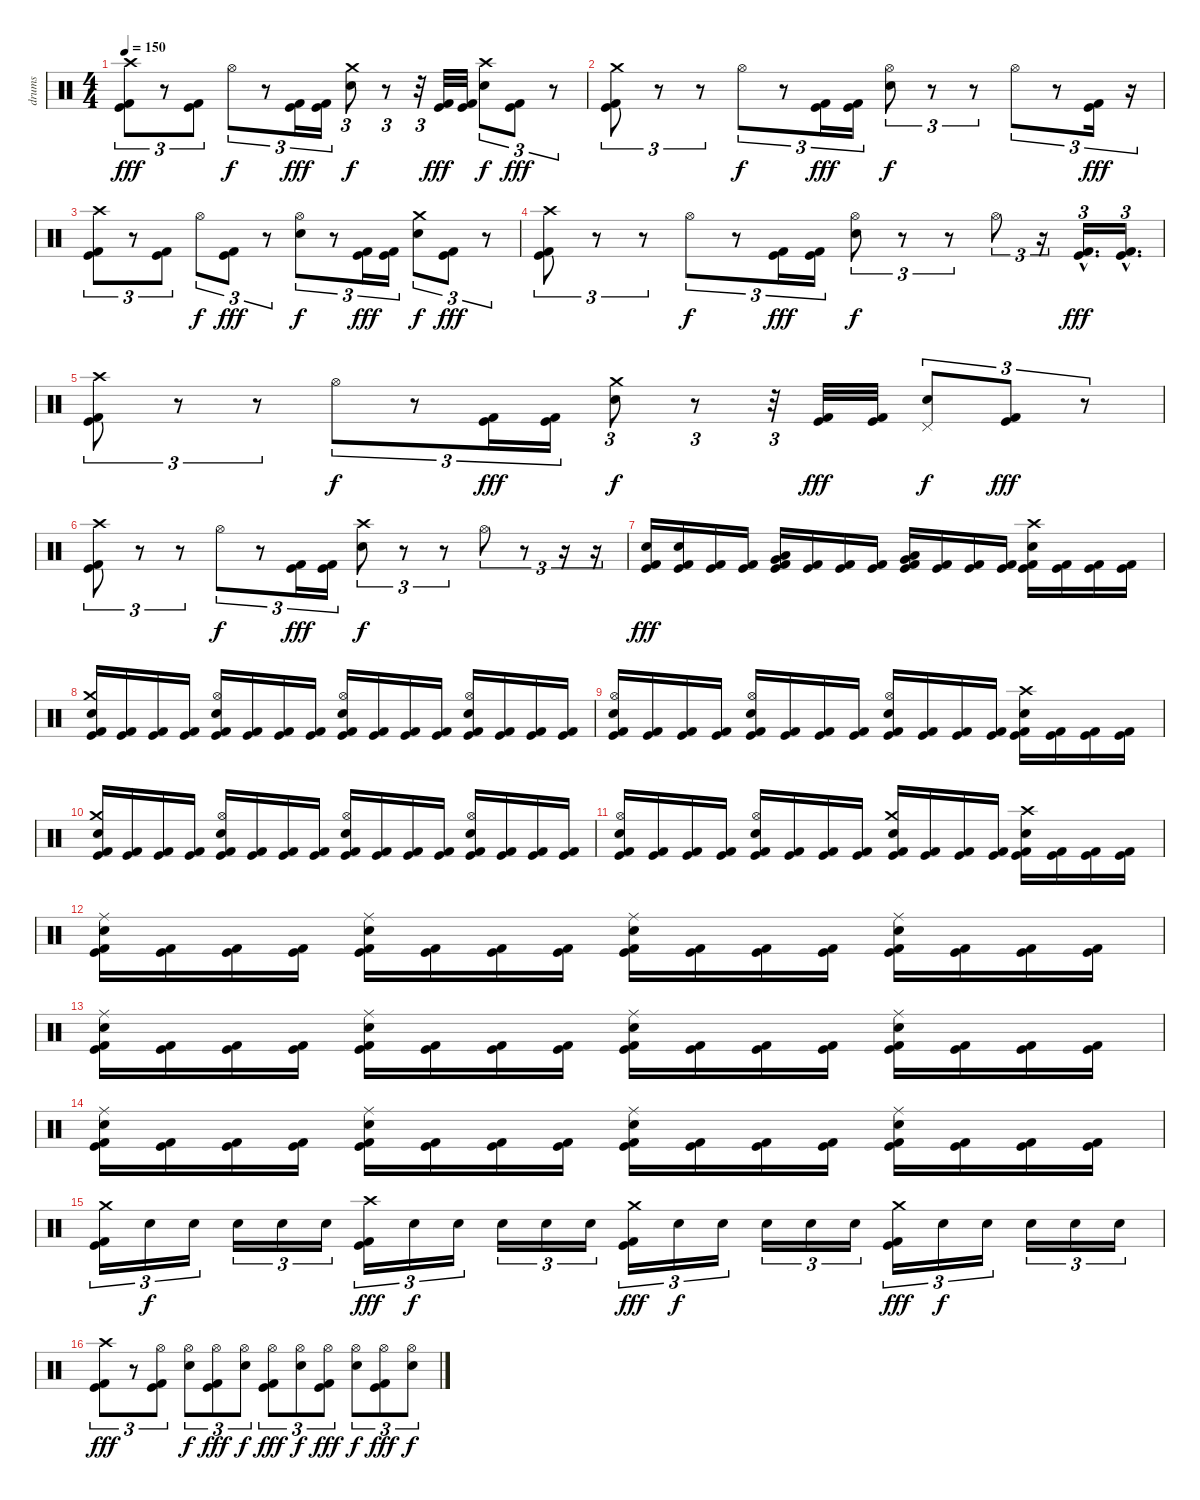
\track ("drums" "drums") {instrument percussion}
\staff {score}
\articulation defaults
\ts (4 4)
\tempo 150
\clef neutral
\ks c
("Crash high (hit)" "Kick (hit)" "Kick (hit) 2").8{tu (3 2) dy fff} r.8{tu (3 2)} ("Kick (hit)" "Kick (hit) 2").8{tu (3 2)} "Hi-Hat (open)".8{tu (3 2) dy f} r.8{tu (3 2)} ("Kick (hit)" "Kick (hit) 2").16{tu (3 2) dy fff} ("Kick (hit)" "Kick (hit) 2").16{tu (3 2)} ("Crash medium (hit)" "Electric Snare (hit)").8{tu (3 2) dy f} r.8{tu (3 2)} r.32{tu (3 2)} ("Kick (hit)" "Kick (hit) 2").32{dy fff} ("Kick (hit)" "Kick (hit) 2").32 ("Crash high (hit)" "Electric Snare (hit)").8{tu (3 2) dy f} ("Kick (hit)" "Kick (hit) 2").8{tu (3 2) dy fff} r.8{tu (3 2)} |
("Crash medium (hit)" "Kick (hit)" "Kick (hit) 2").8{tu (3 2)} r.8{tu (3 2)} r.8{tu (3 2)} "Hi-Hat (open)".8{tu (3 2) dy f} r.8{tu (3 2)} ("Kick (hit)" "Kick (hit) 2").16{tu (3 2) dy fff} ("Kick (hit)" "Kick (hit) 2").16{tu (3 2)} ("Hi-Hat (open)" "Electric Snare (hit)").8{tu (3 2) dy f} r.8{tu (3 2)} r.8{tu (3 2)} "Hi-Hat (open)".8{tu (3 2)} r.8{tu (3 2)} ("Kick (hit)" "Kick (hit) 2").16{tu (3 2) dy fff} r.16{tu (3 2)} |
("Crash high (hit)" "Kick (hit)" "Kick (hit) 2").8{tu (3 2)} r.8{tu (3 2)} ("Kick (hit)" "Kick (hit) 2").8{tu (3 2)} "Hi-Hat (open)".8{tu (3 2) dy f} ("Kick (hit)" "Kick (hit) 2").8{tu (3 2) dy fff} r.8{tu (3 2)} ("Hi-Hat (open)" "Electric Snare (hit)").8{tu (3 2) dy f} r.8{tu (3 2)} ("Kick (hit)" "Kick (hit) 2").16{tu (3 2) dy fff} ("Kick (hit)" "Kick (hit) 2").16{tu (3 2)} ("Crash medium (hit)" "Electric Snare (hit)").8{tu (3 2) dy f} ("Kick (hit)" "Kick (hit) 2").8{tu (3 2) dy fff} r.8{tu (3 2)} |
("Crash high (hit)" "Kick (hit)" "Kick (hit) 2").8{tu (3 2)} r.8{tu (3 2)} r.8{tu (3 2)} "Hi-Hat (open)".8{tu (3 2) dy f} r.8{tu (3 2)} ("Kick (hit)" "Kick (hit) 2").16{tu (3 2) dy fff} ("Kick (hit)" "Kick (hit) 2").16{tu (3 2)} ("Hi-Hat (open)" "Electric Snare (hit)").8{tu (3 2) dy f} r.8{tu (3 2)} r.8{tu (3 2)} "Hi-Hat (open)".8{tu (3 2)} r.16{tu (3 2)} ("Kick (hit)"{hac} "Kick (hit) 2"{hac}).16{d tu (3 2) dy fff} ("Kick (hit)"{hac} "Kick (hit) 2"{hac}).16{d tu (3 2)} |
("Crash high (hit)" "Kick (hit)" "Kick (hit) 2").8{tu (3 2)} r.8{tu (3 2)} r.8{tu (3 2)} "Hi-Hat (open)".8{tu (3 2) dy f} r.8{tu (3 2)} ("Kick (hit)" "Kick (hit) 2").16{tu (3 2) dy fff} ("Kick (hit)" "Kick (hit) 2").16{tu (3 2)} ("Crash medium (hit)" "Electric Snare (hit)").8{tu (3 2) dy f} r.8{tu (3 2)} r.32{tu (3 2)} ("Kick (hit)" "Kick (hit) 2").32{dy fff} ("Kick (hit)" "Kick (hit) 2").32 ("Pedal Hi-Hat (hit)" "Electric Snare (hit)").8{tu (3 2) dy f} ("Kick (hit)" "Kick (hit) 2").8{tu (3 2) dy fff} r.8{tu (3 2)} |
("Crash high (hit)" "Kick (hit)" "Kick (hit) 2").8{tu (3 2)} r.8{tu (3 2)} r.8{tu (3 2)} "Hi-Hat (open)".8{tu (3 2) dy f} r.8{tu (3 2)} ("Kick (hit)" "Kick (hit) 2").16{tu (3 2) dy fff} ("Kick (hit)" "Kick (hit) 2").16{tu (3 2)} ("Crash high (hit)" "Electric Snare (hit)").8{tu (3 2) dy f} r.8{tu (3 2)} r.8{tu (3 2)} "Hi-Hat (open)".8{tu (3 2)} r.8{tu (3 2)} r.16{tu (3 2)} r.16{tu (3 2)} |
("Electric Snare (hit)" "Kick (hit)" "Kick (hit) 2").16{dy fff} ("Electric Snare (hit)" "Kick (hit)" "Kick (hit) 2").16 ("Kick (hit)" "Kick (hit) 2").16 ("Kick (hit)" "Kick (hit) 2").16 ("Low Tom (hit)" "Very Low Tom (hit)" "Kick (hit)" "Kick (hit) 2").16{bu 60} ("Kick (hit)" "Kick (hit) 2").16 ("Kick (hit)" "Kick (hit) 2").16 ("Kick (hit)" "Kick (hit) 2").16 ("Very Low Tom (hit)" "Low Floor Tom (hit)" "Kick (hit)" "Kick (hit) 2").16{bu 60} ("Kick (hit)" "Kick (hit) 2").16 ("Kick (hit)" "Kick (hit) 2").16 ("Kick (hit)" "Kick (hit) 2").16 ("Crash high (hit)" "Electric Snare (hit)" "Kick (hit)" "Kick (hit) 2").16 ("Kick (hit)" "Kick (hit) 2").16 ("Kick (hit)" "Kick (hit) 2").16 ("Kick (hit)" "Kick (hit) 2").16 |
("Crash medium (hit)" "Electric Snare (hit)" "Kick (hit)" "Kick (hit) 2").16 ("Kick (hit)" "Kick (hit) 2").16 ("Kick (hit)" "Kick (hit) 2").16 ("Kick (hit)" "Kick (hit) 2").16 ("Hi-Hat (open)" "Electric Snare (hit)" "Kick (hit)" "Kick (hit) 2").16 ("Kick (hit)" "Kick (hit) 2").16 ("Kick (hit)" "Kick (hit) 2").16 ("Kick (hit)" "Kick (hit) 2").16 ("Hi-Hat (open)" "Electric Snare (hit)" "Kick (hit)" "Kick (hit) 2").16 ("Kick (hit)" "Kick (hit) 2").16 ("Kick (hit)" "Kick (hit) 2").16 ("Kick (hit)" "Kick (hit) 2").16 ("Hi-Hat (open)" "Electric Snare (hit)" "Kick (hit)" "Kick (hit) 2").16 ("Kick (hit)" "Kick (hit) 2").16 ("Kick (hit)" "Kick (hit) 2").16 ("Kick (hit)" "Kick (hit) 2").16 |
("Hi-Hat (open)" "Electric Snare (hit)" "Kick (hit)" "Kick (hit) 2").16 ("Kick (hit)" "Kick (hit) 2").16 ("Kick (hit)" "Kick (hit) 2").16 ("Kick (hit)" "Kick (hit) 2").16 ("Hi-Hat (open)" "Electric Snare (hit)" "Kick (hit)" "Kick (hit) 2").16 ("Kick (hit)" "Kick (hit) 2").16 ("Kick (hit)" "Kick (hit) 2").16 ("Kick (hit)" "Kick (hit) 2").16 ("Hi-Hat (open)" "Electric Snare (hit)" "Kick (hit)" "Kick (hit) 2").16 ("Kick (hit)" "Kick (hit) 2").16 ("Kick (hit)" "Kick (hit) 2").16 ("Kick (hit)" "Kick (hit) 2").16 ("Crash high (hit)" "Electric Snare (hit)" "Kick (hit)" "Kick (hit) 2").16 ("Kick (hit)" "Kick (hit) 2").16 ("Kick (hit)" "Kick (hit) 2").16 ("Kick (hit)" "Kick (hit) 2").16 |
("Crash medium (hit)" "Electric Snare (hit)" "Kick (hit)" "Kick (hit) 2").16 ("Kick (hit)" "Kick (hit) 2").16 ("Kick (hit)" "Kick (hit) 2").16 ("Kick (hit)" "Kick (hit) 2").16 ("Hi-Hat (open)" "Electric Snare (hit)" "Kick (hit)" "Kick (hit) 2").16 ("Kick (hit)" "Kick (hit) 2").16 ("Kick (hit)" "Kick (hit) 2").16 ("Kick (hit)" "Kick (hit) 2").16 ("Hi-Hat (open)" "Electric Snare (hit)" "Kick (hit)" "Kick (hit) 2").16 ("Kick (hit)" "Kick (hit) 2").16 ("Kick (hit)" "Kick (hit) 2").16 ("Kick (hit)" "Kick (hit) 2").16 ("Hi-Hat (open)" "Electric Snare (hit)" "Kick (hit)" "Kick (hit) 2").16 ("Kick (hit)" "Kick (hit) 2").16 ("Kick (hit)" "Kick (hit) 2").16 ("Kick (hit)" "Kick (hit) 2").16 |
("Hi-Hat (open)" "Electric Snare (hit)" "Kick (hit)" "Kick (hit) 2").16 ("Kick (hit)" "Kick (hit) 2").16 ("Kick (hit)" "Kick (hit) 2").16 ("Kick (hit)" "Kick (hit) 2").16 ("Hi-Hat (open)" "Electric Snare (hit)" "Kick (hit)" "Kick (hit) 2").16 ("Kick (hit)" "Kick (hit) 2").16 ("Kick (hit)" "Kick (hit) 2").16 ("Kick (hit)" "Kick (hit) 2").16 ("Crash medium (hit)" "Electric Snare (hit)" "Kick (hit)" "Kick (hit) 2").16 ("Kick (hit)" "Kick (hit) 2").16 ("Kick (hit)" "Kick (hit) 2").16 ("Kick (hit)" "Kick (hit) 2").16 ("Crash high (hit)" "Electric Snare (hit)" "Kick (hit)" "Kick (hit) 2").16 ("Kick (hit)" "Kick (hit) 2").16 ("Kick (hit)" "Kick (hit) 2").16 ("Kick (hit)" "Kick (hit) 2").16 |
("Ride (middle)" "Electric Snare (hit)" "Kick (hit)" "Kick (hit) 2").16 ("Kick (hit)" "Kick (hit) 2").16 ("Kick (hit)" "Kick (hit) 2").16 ("Kick (hit)" "Kick (hit) 2").16 ("Ride (middle)" "Electric Snare (hit)" "Kick (hit)" "Kick (hit) 2").16 ("Kick (hit)" "Kick (hit) 2").16 ("Kick (hit)" "Kick (hit) 2").16 ("Kick (hit)" "Kick (hit) 2").16 ("Ride (middle)" "Electric Snare (hit)" "Kick (hit)" "Kick (hit) 2").16 ("Kick (hit)" "Kick (hit) 2").16 ("Kick (hit)" "Kick (hit) 2").16 ("Kick (hit)" "Kick (hit) 2").16 ("Ride (middle)" "Electric Snare (hit)" "Kick (hit)" "Kick (hit) 2").16 ("Kick (hit)" "Kick (hit) 2").16 ("Kick (hit)" "Kick (hit) 2").16 ("Kick (hit)" "Kick (hit) 2").16 |
("Ride (middle)" "Electric Snare (hit)" "Kick (hit)" "Kick (hit) 2").16 ("Kick (hit)" "Kick (hit) 2").16 ("Kick (hit)" "Kick (hit) 2").16 ("Kick (hit)" "Kick (hit) 2").16 ("Ride (middle)" "Electric Snare (hit)" "Kick (hit)" "Kick (hit) 2").16 ("Kick (hit)" "Kick (hit) 2").16 ("Kick (hit)" "Kick (hit) 2").16 ("Kick (hit)" "Kick (hit) 2").16 ("Ride (middle)" "Electric Snare (hit)" "Kick (hit)" "Kick (hit) 2").16 ("Kick (hit)" "Kick (hit) 2").16 ("Kick (hit)" "Kick (hit) 2").16 ("Kick (hit)" "Kick (hit) 2").16 ("Ride (middle)" "Electric Snare (hit)" "Kick (hit)" "Kick (hit) 2").16 ("Kick (hit)" "Kick (hit) 2").16 ("Kick (hit)" "Kick (hit) 2").16 ("Kick (hit)" "Kick (hit) 2").16 |
("Ride (middle)" "Electric Snare (hit)" "Kick (hit)" "Kick (hit) 2").16 ("Kick (hit)" "Kick (hit) 2").16 ("Kick (hit)" "Kick (hit) 2").16 ("Kick (hit)" "Kick (hit) 2").16 ("Ride (middle)" "Electric Snare (hit)" "Kick (hit)" "Kick (hit) 2").16 ("Kick (hit)" "Kick (hit) 2").16 ("Kick (hit)" "Kick (hit) 2").16 ("Kick (hit)" "Kick (hit) 2").16 ("Ride (middle)" "Electric Snare (hit)" "Kick (hit)" "Kick (hit) 2").16 ("Kick (hit)" "Kick (hit) 2").16 ("Kick (hit)" "Kick (hit) 2").16 ("Kick (hit)" "Kick (hit) 2").16 ("Ride (middle)" "Electric Snare (hit)" "Kick (hit)" "Kick (hit) 2").16 ("Kick (hit)" "Kick (hit) 2").16 ("Kick (hit)" "Kick (hit) 2").16 ("Kick (hit)" "Kick (hit) 2").16 |
("Crash medium (hit)" "Kick (hit)" "Kick (hit) 2").16{tu (3 2)} "Electric Snare (hit)".16{tu (3 2) dy f} "Electric Snare (hit)".16{tu (3 2)} "Electric Snare (hit)".16{tu (3 2)} "Electric Snare (hit)".16{tu (3 2)} "Electric Snare (hit)".16{tu (3 2)} ("Crash high (hit)" "Kick (hit)" "Kick (hit) 2").16{tu (3 2) dy fff} "Electric Snare (hit)".16{tu (3 2) dy f} "Electric Snare (hit)".16{tu (3 2)} "Electric Snare (hit)".16{tu (3 2)} "Electric Snare (hit)".16{tu (3 2)} "Electric Snare (hit)".16{tu (3 2)} ("Crash medium (hit)" "Kick (hit)" "Kick (hit) 2").16{tu (3 2) dy fff} "Electric Snare (hit)".16{tu (3 2) dy f} "Electric Snare (hit)".16{tu (3 2)} "Electric Snare (hit)".16{tu (3 2)} "Electric Snare (hit)".16{tu (3 2)} "Electric Snare (hit)".16{tu (3 2)} ("Crash medium (hit)" "Kick (hit)" "Kick (hit) 2").16{tu (3 2) dy fff} "Electric Snare (hit)".16{tu (3 2) dy f} "Electric Snare (hit)".16{tu (3 2)} "Electric Snare (hit)".16{tu (3 2)} "Electric Snare (hit)".16{tu (3 2)} "Electric Snare (hit)".16{tu (3 2)} |
("Crash high (hit)" "Kick (hit)" "Kick (hit) 2").8{tu (3 2) dy fff} r.8{tu (3 2)} ("Hi-Hat (open)" "Kick (hit)" "Kick (hit) 2").8{tu (3 2)} ("Hi-Hat (open)" "Electric Snare (hit)").8{tu (3 2) dy f} ("Hi-Hat (open)" "Kick (hit)" "Kick (hit) 2").8{tu (3 2) dy fff} ("Hi-Hat (open)" "Electric Snare (hit)").8{tu (3 2) dy f} ("Hi-Hat (open)" "Kick (hit)" "Kick (hit) 2").8{tu (3 2) dy fff} ("Hi-Hat (open)" "Electric Snare (hit)").8{tu (3 2) dy f} ("Hi-Hat (open)" "Kick (hit)" "Kick (hit) 2").8{tu (3 2) dy fff} ("Hi-Hat (open)" "Electric Snare (hit)").8{tu (3 2) dy f} ("Hi-Hat (open)" "Kick (hit)" "Kick (hit) 2").8{tu (3 2) dy fff} ("Hi-Hat (open)" "Electric Snare (hit)").8{tu (3 2) dy f}
